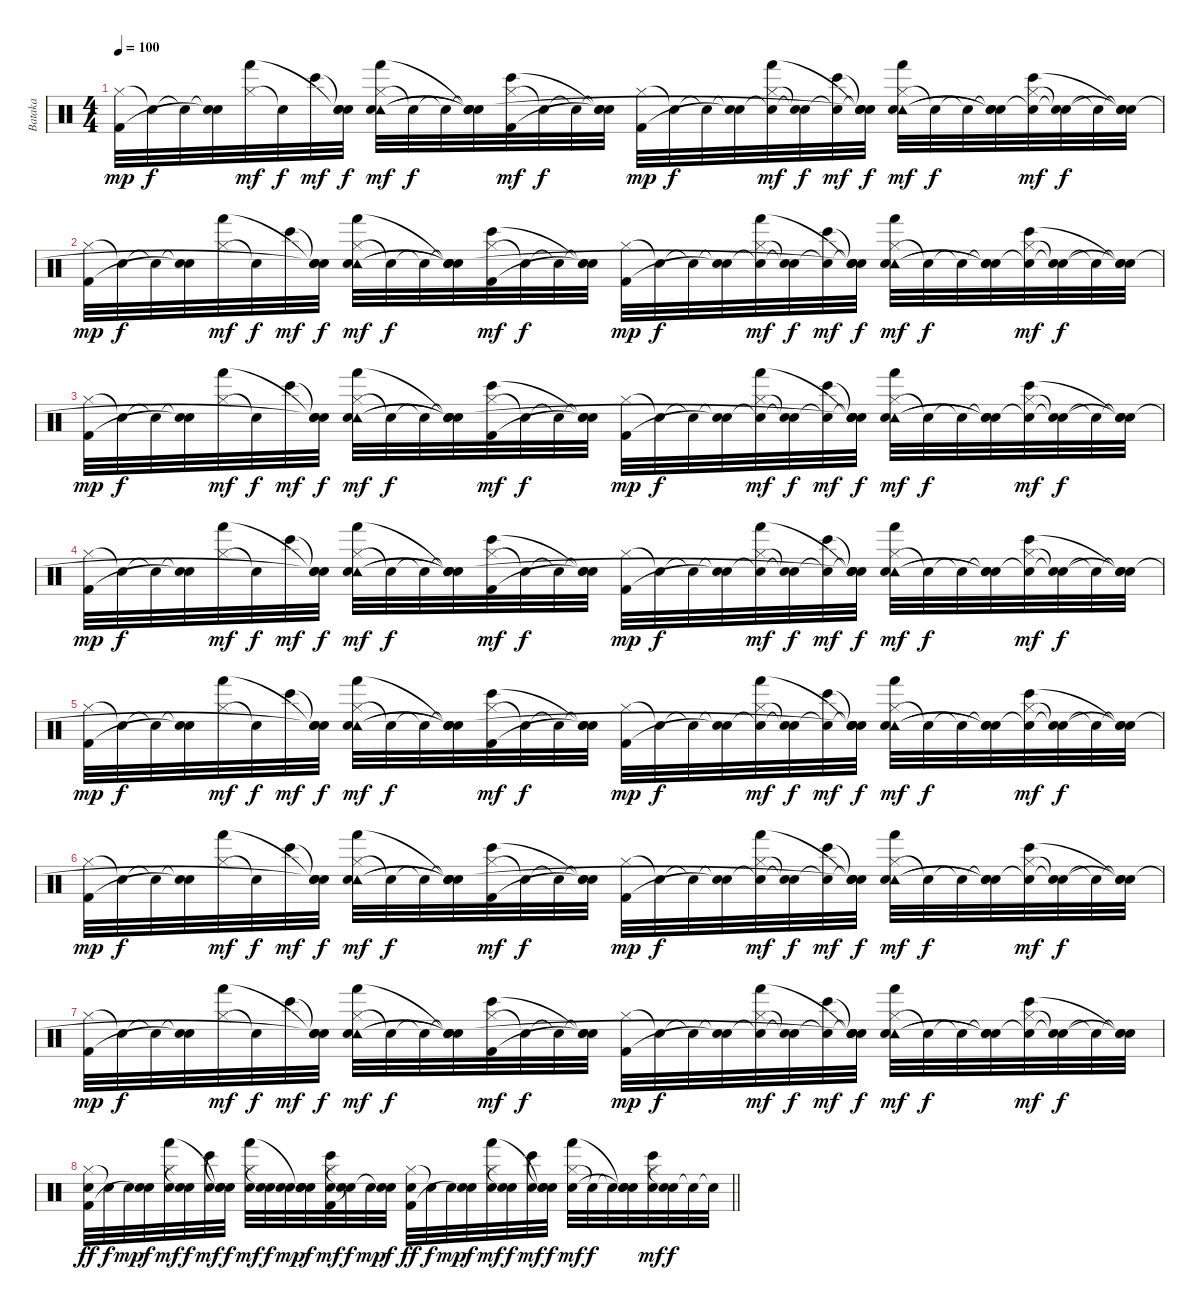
\track ("Bataka" "Bataka") {instrument percussion}
\staff {score}
\articulation defaults
\ts (4 4)
\tempo 100
\clef neutral
\ks c
("Hi-Hat (closed)" "Kick (hit) 2").32{dy mp} "Snare (hit)"{t}.32{dy f} "Snare (hit)"{t}.32 ("Snare (hit)"{t} "Snare (hit)"{t}).32 ("Hi-Hat (closed)" "Hand (hit)").32{dy mf} "Snare (hit)"{t}.32{dy f} "Bongo High (hit)".32{dy mf} ("Snare (hit)"{t} "Snare (hit)"{t} "Snare (hit)").32{dy f} ("Hi-Hat (closed)" "Tambourine (hit)" "Electric Snare (hit)" "Hand (hit)").32{dy mf} "Snare (hit)"{t}.32{dy f} "Snare (hit)"{t}.32 ("Snare (hit)"{t} "Snare (hit)"{t} "Snare (hit)"{t} "Snare (hit)"{t}).32 ("Hi-Hat (closed)" "Kick (hit) 2" "Bongo High (hit)").32{dy mf} "Snare (hit)"{t}.32{dy f} "Snare (hit)"{t}.32 ("Snare (hit)"{t} "Snare (hit)"{t} "Snare (hit)"{t}).32 ("Hi-Hat (closed)" "Kick (hit) 2").32{dy mp} "Snare (hit)"{t}.32{dy f} "Snare (hit)"{t}.32 ("Snare (hit)"{t} "Snare (hit)"{t}).32 ("Hi-Hat (closed)" "Snare (hit)"{t} "Hand (hit)").32{dy mf} ("Snare (hit)"{t} "Snare (hit)"{t}).32{dy f} ("Snare (hit)"{t} "Bongo High (hit)").32{dy mf} ("Snare (hit)"{t} "Snare (hit)"{t} "Snare (hit)"{t} "Snare (hit)"{t}).32{dy f} ("Hi-Hat (closed)" "Tambourine (hit)" "Electric Snare (hit)" "Hand (hit)").32{dy mf} "Snare (hit)"{t}.32{dy f} "Snare (hit)"{t}.32 ("Snare (hit)"{t} "Snare (hit)"{t} "Snare (hit)"{t}).32 ("Hi-Hat (closed)" "Snare (hit)"{t} "Bongo High (hit)").32{dy mf} ("Snare (hit)"{t} "Snare (hit)"{t}).32{dy f} "Snare (hit)"{t}.32 ("Snare (hit)"{t} "Snare (hit)"{t} "Snare (hit)"{t}).32 |
("Hi-Hat (closed)" "Kick (hit) 2").32{dy mp} "Snare (hit)"{t}.32{dy f} "Snare (hit)"{t}.32 ("Snare (hit)"{t} "Snare (hit)"{t}).32 ("Hi-Hat (closed)" "Hand (hit)").32{dy mf} "Snare (hit)"{t}.32{dy f} "Bongo High (hit)".32{dy mf} ("Snare (hit)"{t} "Snare (hit)"{t} "Snare (hit)"{t}).32{dy f} ("Hi-Hat (closed)" "Tambourine (hit)" "Electric Snare (hit)" "Hand (hit)").32{dy mf} "Snare (hit)"{t}.32{dy f} "Snare (hit)"{t}.32 ("Snare (hit)"{t} "Snare (hit)"{t} "Snare (hit)"{t} "Snare (hit)"{t}).32 ("Hi-Hat (closed)" "Kick (hit) 2" "Bongo High (hit)").32{dy mf} "Snare (hit)"{t}.32{dy f} "Snare (hit)"{t}.32 ("Snare (hit)"{t} "Snare (hit)"{t} "Snare (hit)"{t}).32 ("Hi-Hat (closed)" "Kick (hit) 2").32{dy mp} "Snare (hit)"{t}.32{dy f} "Snare (hit)"{t}.32 ("Snare (hit)"{t} "Snare (hit)"{t}).32 ("Hi-Hat (closed)" "Snare (hit)"{t} "Hand (hit)").32{dy mf} ("Snare (hit)"{t} "Snare (hit)"{t}).32{dy f} ("Snare (hit)"{t} "Bongo High (hit)").32{dy mf} ("Snare (hit)"{t} "Snare (hit)"{t} "Snare (hit)"{t} "Snare (hit)"{t}).32{dy f} ("Hi-Hat (closed)" "Tambourine (hit)" "Electric Snare (hit)" "Hand (hit)").32{dy mf} "Snare (hit)"{t}.32{dy f} "Snare (hit)"{t}.32 ("Snare (hit)"{t} "Snare (hit)"{t} "Snare (hit)"{t}).32 ("Hi-Hat (closed)" "Snare (hit)"{t} "Bongo High (hit)").32{dy mf} ("Snare (hit)"{t} "Snare (hit)"{t}).32{dy f} "Snare (hit)"{t}.32 ("Snare (hit)"{t} "Snare (hit)"{t} "Snare (hit)"{t}).32 |
("Hi-Hat (closed)" "Kick (hit) 2").32{dy mp} "Snare (hit)"{t}.32{dy f} "Snare (hit)"{t}.32 ("Snare (hit)"{t} "Snare (hit)"{t}).32 ("Hi-Hat (closed)" "Hand (hit)").32{dy mf} "Snare (hit)"{t}.32{dy f} "Bongo High (hit)".32{dy mf} ("Snare (hit)"{t} "Snare (hit)"{t} "Snare (hit)"{t}).32{dy f} ("Hi-Hat (closed)" "Tambourine (hit)" "Electric Snare (hit)" "Hand (hit)").32{dy mf} "Snare (hit)"{t}.32{dy f} "Snare (hit)"{t}.32 ("Snare (hit)"{t} "Snare (hit)"{t} "Snare (hit)"{t} "Snare (hit)"{t}).32 ("Hi-Hat (closed)" "Kick (hit) 2" "Bongo High (hit)").32{dy mf} "Snare (hit)"{t}.32{dy f} "Snare (hit)"{t}.32 ("Snare (hit)"{t} "Snare (hit)"{t} "Snare (hit)"{t}).32 ("Hi-Hat (closed)" "Kick (hit) 2").32{dy mp} "Snare (hit)"{t}.32{dy f} "Snare (hit)"{t}.32 ("Snare (hit)"{t} "Snare (hit)"{t}).32 ("Hi-Hat (closed)" "Snare (hit)"{t} "Hand (hit)").32{dy mf} ("Snare (hit)"{t} "Snare (hit)"{t}).32{dy f} ("Snare (hit)"{t} "Bongo High (hit)").32{dy mf} ("Snare (hit)"{t} "Snare (hit)"{t} "Snare (hit)"{t} "Snare (hit)"{t}).32{dy f} ("Hi-Hat (closed)" "Tambourine (hit)" "Electric Snare (hit)" "Hand (hit)").32{dy mf} "Snare (hit)"{t}.32{dy f} "Snare (hit)"{t}.32 ("Snare (hit)"{t} "Snare (hit)"{t} "Snare (hit)"{t}).32 ("Hi-Hat (closed)" "Snare (hit)"{t} "Bongo High (hit)").32{dy mf} ("Snare (hit)"{t} "Snare (hit)"{t}).32{dy f} "Snare (hit)"{t}.32 ("Snare (hit)"{t} "Snare (hit)"{t} "Snare (hit)"{t}).32 |
("Hi-Hat (closed)" "Kick (hit) 2").32{dy mp} "Snare (hit)"{t}.32{dy f} "Snare (hit)"{t}.32 ("Snare (hit)"{t} "Snare (hit)"{t}).32 ("Hi-Hat (closed)" "Hand (hit)").32{dy mf} "Snare (hit)"{t}.32{dy f} "Bongo High (hit)".32{dy mf} ("Snare (hit)"{t} "Snare (hit)"{t} "Snare (hit)"{t}).32{dy f} ("Hi-Hat (closed)" "Tambourine (hit)" "Electric Snare (hit)" "Hand (hit)").32{dy mf} "Snare (hit)"{t}.32{dy f} "Snare (hit)"{t}.32 ("Snare (hit)"{t} "Snare (hit)"{t} "Snare (hit)"{t} "Snare (hit)"{t}).32 ("Hi-Hat (closed)" "Kick (hit) 2" "Bongo High (hit)").32{dy mf} "Snare (hit)"{t}.32{dy f} "Snare (hit)"{t}.32 ("Snare (hit)"{t} "Snare (hit)"{t} "Snare (hit)"{t}).32 ("Hi-Hat (closed)" "Kick (hit) 2").32{dy mp} "Snare (hit)"{t}.32{dy f} "Snare (hit)"{t}.32 ("Snare (hit)"{t} "Snare (hit)"{t}).32 ("Hi-Hat (closed)" "Snare (hit)"{t} "Hand (hit)").32{dy mf} ("Snare (hit)"{t} "Snare (hit)"{t}).32{dy f} ("Snare (hit)"{t} "Bongo High (hit)").32{dy mf} ("Snare (hit)"{t} "Snare (hit)"{t} "Snare (hit)"{t} "Snare (hit)"{t}).32{dy f} ("Hi-Hat (closed)" "Tambourine (hit)" "Electric Snare (hit)" "Hand (hit)").32{dy mf} "Snare (hit)"{t}.32{dy f} "Snare (hit)"{t}.32 ("Snare (hit)"{t} "Snare (hit)"{t} "Snare (hit)"{t}).32 ("Hi-Hat (closed)" "Snare (hit)"{t} "Bongo High (hit)").32{dy mf} ("Snare (hit)"{t} "Snare (hit)"{t}).32{dy f} "Snare (hit)"{t}.32 ("Snare (hit)"{t} "Snare (hit)"{t} "Snare (hit)"{t}).32 |
("Hi-Hat (closed)" "Kick (hit) 2").32{dy mp} "Snare (hit)"{t}.32{dy f} "Snare (hit)"{t}.32 ("Snare (hit)"{t} "Snare (hit)"{t}).32 ("Hi-Hat (closed)" "Hand (hit)").32{dy mf} "Snare (hit)"{t}.32{dy f} "Bongo High (hit)".32{dy mf} ("Snare (hit)"{t} "Snare (hit)"{t} "Snare (hit)"{t}).32{dy f} ("Hi-Hat (closed)" "Tambourine (hit)" "Electric Snare (hit)" "Hand (hit)").32{dy mf} "Snare (hit)"{t}.32{dy f} "Snare (hit)"{t}.32 ("Snare (hit)"{t} "Snare (hit)"{t} "Snare (hit)"{t} "Snare (hit)"{t}).32 ("Hi-Hat (closed)" "Kick (hit) 2" "Bongo High (hit)").32{dy mf} "Snare (hit)"{t}.32{dy f} "Snare (hit)"{t}.32 ("Snare (hit)"{t} "Snare (hit)"{t} "Snare (hit)"{t}).32 ("Hi-Hat (closed)" "Kick (hit) 2").32{dy mp} "Snare (hit)"{t}.32{dy f} "Snare (hit)"{t}.32 ("Snare (hit)"{t} "Snare (hit)"{t}).32 ("Hi-Hat (closed)" "Snare (hit)"{t} "Hand (hit)").32{dy mf} ("Snare (hit)"{t} "Snare (hit)"{t}).32{dy f} ("Snare (hit)"{t} "Bongo High (hit)").32{dy mf} ("Snare (hit)"{t} "Snare (hit)"{t} "Snare (hit)"{t} "Snare (hit)"{t}).32{dy f} ("Hi-Hat (closed)" "Tambourine (hit)" "Electric Snare (hit)" "Hand (hit)").32{dy mf} "Snare (hit)"{t}.32{dy f} "Snare (hit)"{t}.32 ("Snare (hit)"{t} "Snare (hit)"{t} "Snare (hit)"{t}).32 ("Hi-Hat (closed)" "Snare (hit)"{t} "Bongo High (hit)").32{dy mf} ("Snare (hit)"{t} "Snare (hit)"{t}).32{dy f} "Snare (hit)"{t}.32 ("Snare (hit)"{t} "Snare (hit)"{t} "Snare (hit)"{t}).32 |
("Hi-Hat (closed)" "Kick (hit) 2").32{dy mp} "Snare (hit)"{t}.32{dy f} "Snare (hit)"{t}.32 ("Snare (hit)"{t} "Snare (hit)"{t}).32 ("Hi-Hat (closed)" "Hand (hit)").32{dy mf} "Snare (hit)"{t}.32{dy f} "Bongo High (hit)".32{dy mf} ("Snare (hit)"{t} "Snare (hit)"{t} "Snare (hit)"{t}).32{dy f} ("Hi-Hat (closed)" "Tambourine (hit)" "Electric Snare (hit)" "Hand (hit)").32{dy mf} "Snare (hit)"{t}.32{dy f} "Snare (hit)"{t}.32 ("Snare (hit)"{t} "Snare (hit)"{t} "Snare (hit)"{t} "Snare (hit)"{t}).32 ("Hi-Hat (closed)" "Kick (hit) 2" "Bongo High (hit)").32{dy mf} "Snare (hit)"{t}.32{dy f} "Snare (hit)"{t}.32 ("Snare (hit)"{t} "Snare (hit)"{t} "Snare (hit)"{t}).32 ("Hi-Hat (closed)" "Kick (hit) 2").32{dy mp} "Snare (hit)"{t}.32{dy f} "Snare (hit)"{t}.32 ("Snare (hit)"{t} "Snare (hit)"{t}).32 ("Hi-Hat (closed)" "Snare (hit)"{t} "Hand (hit)").32{dy mf} ("Snare (hit)"{t} "Snare (hit)"{t}).32{dy f} ("Snare (hit)"{t} "Bongo High (hit)").32{dy mf} ("Snare (hit)"{t} "Snare (hit)"{t} "Snare (hit)"{t} "Snare (hit)"{t}).32{dy f} ("Hi-Hat (closed)" "Tambourine (hit)" "Electric Snare (hit)" "Hand (hit)").32{dy mf} "Snare (hit)"{t}.32{dy f} "Snare (hit)"{t}.32 ("Snare (hit)"{t} "Snare (hit)"{t} "Snare (hit)"{t}).32 ("Hi-Hat (closed)" "Snare (hit)"{t} "Bongo High (hit)").32{dy mf} ("Snare (hit)"{t} "Snare (hit)"{t}).32{dy f} "Snare (hit)"{t}.32 ("Snare (hit)"{t} "Snare (hit)"{t} "Snare (hit)"{t}).32 |
("Hi-Hat (closed)" "Kick (hit) 2").32{dy mp} "Snare (hit)"{t}.32{dy f} "Snare (hit)"{t}.32 ("Snare (hit)"{t} "Snare (hit)"{t}).32 ("Hi-Hat (closed)" "Hand (hit)").32{dy mf} "Snare (hit)"{t}.32{dy f} "Bongo High (hit)".32{dy mf} ("Snare (hit)"{t} "Snare (hit)"{t} "Snare (hit)"{t}).32{dy f} ("Hi-Hat (closed)" "Tambourine (hit)" "Electric Snare (hit)" "Hand (hit)").32{dy mf} "Snare (hit)"{t}.32{dy f} "Snare (hit)"{t}.32 ("Snare (hit)"{t} "Snare (hit)"{t} "Snare (hit)"{t} "Snare (hit)"{t}).32 ("Hi-Hat (closed)" "Kick (hit) 2" "Bongo High (hit)").32{dy mf} "Snare (hit)"{t}.32{dy f} "Snare (hit)"{t}.32 ("Snare (hit)"{t} "Snare (hit)"{t} "Snare (hit)"{t}).32 ("Hi-Hat (closed)" "Kick (hit) 2").32{dy mp} "Snare (hit)"{t}.32{dy f} "Snare (hit)"{t}.32 ("Snare (hit)"{t} "Snare (hit)"{t}).32 ("Hi-Hat (closed)" "Snare (hit)"{t} "Hand (hit)").32{dy mf} ("Snare (hit)"{t} "Snare (hit)"{t}).32{dy f} ("Snare (hit)"{t} "Bongo High (hit)").32{dy mf} ("Snare (hit)"{t} "Snare (hit)"{t} "Snare (hit)"{t} "Snare (hit)"{t}).32{dy f} ("Hi-Hat (closed)" "Tambourine (hit)" "Electric Snare (hit)" "Hand (hit)").32{dy mf} "Snare (hit)"{t}.32{dy f} "Snare (hit)"{t}.32 ("Snare (hit)"{t} "Snare (hit)"{t} "Snare (hit)"{t}).32 ("Hi-Hat (closed)" "Snare (hit)"{t} "Bongo High (hit)").32{dy mf} ("Snare (hit)"{t} "Snare (hit)"{t}).32{dy f} "Snare (hit)"{t}.32 ("Snare (hit)"{t} "Snare (hit)"{t} "Snare (hit)"{t}).32 |
\barLineRight lightlight
("Hi-Hat (closed)" "Kick (hit) 2" "Electric Snare (hit)").32{dy ff} "Snare (hit)"{t}.32{dy f} "Electric Snare (hit)".32{dy mp} ("Snare (hit)"{t} "Electric Snare (hit)"{t}).32{dy f} ("Hi-Hat (closed)" "Electric Snare (hit)" "Hand (hit)").32{dy mf} ("Snare (hit)"{t} "Snare (hit)"{t}).32{dy f} ("Electric Snare (hit)" "Bongo High (hit)").32{dy mf} ("Snare (hit)"{t} "Snare (hit)"{t} "Snare (hit)"{t}).32{dy f} ("Hi-Hat (closed)" "Electric Snare (hit)" "Hand (hit)").32{dy mf} ("Electric Snare (hit)"{t} "Snare (hit)"{t}).32{dy f} ("Electric Snare (hit)" "Snare (hit)"{t}).32{dy mp} ("Snare (hit)"{t} "Snare (hit)"{t} "Snare (hit)"{t}).32{dy f} ("Hi-Hat (closed)" "Kick (hit) 2" "Electric Snare (hit)" "Bongo High (hit)").32{dy mf} ("Electric Snare (hit)"{t} "Snare (hit)"{t}).32{dy f} "Electric Snare (hit)".32{dy mp} ("Snare (hit)"{t} "Snare (hit)"{t}).32{dy f} ("Hi-Hat (closed)" "Kick (hit) 2" "Electric Snare (hit)").32{dy ff} "Snare (hit)"{t}.32{dy f} "Electric Snare (hit)".32{dy mp} ("Snare (hit)"{t} "Snare (hit)"{t}).32{dy f} ("Hi-Hat (closed)" "Electric Snare (hit)" "Hand (hit)").32{dy mf} ("Snare (hit)"{t} "Snare (hit)"{t}).32{dy f} ("Electric Snare (hit)" "Bongo High (hit)").32{dy mf} ("Snare (hit)"{t} "Snare (hit)"{t} "Snare (hit)"{t}).32{dy f} ("Hi-Hat (closed)" "Electric Snare (hit)" "Hand (hit)").32{dy mf} "Snare (hit)"{t}.32{dy f} "Snare (hit)"{t}.32 ("Snare (hit)"{t} "Snare (hit)"{t} "Snare (hit)"{t}).32 ("Hi-Hat (closed)" "Electric Snare (hit)" "Bongo High (hit)").32{dy mf} ("Snare (hit)"{t} "Snare (hit)"{t}).32{dy f} "Snare (hit)"{t}.32 "Snare (hit)"{t}.32
